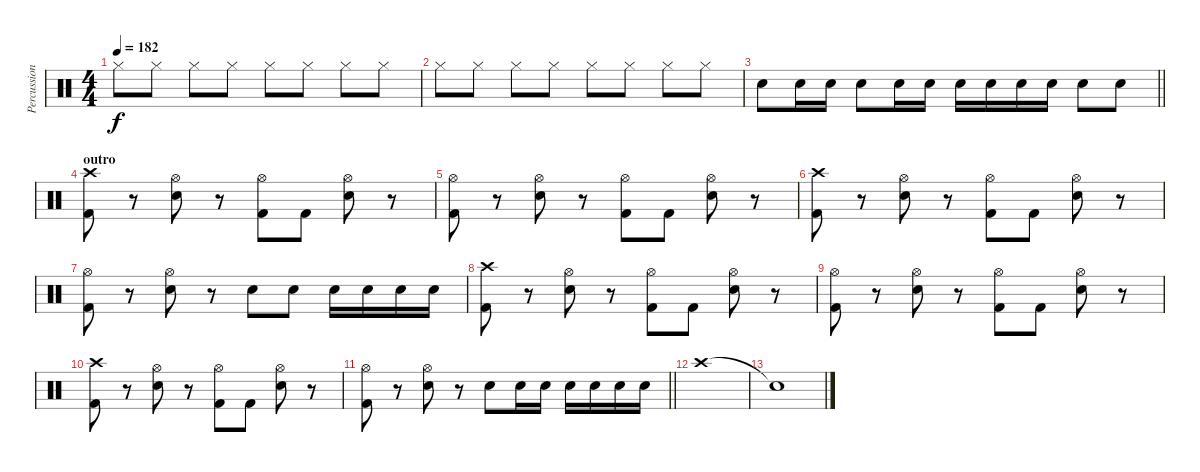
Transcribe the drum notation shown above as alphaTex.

\track ("Percussion" "Percussion") {instrument percussion}
\staff {score}
\articulation defaults
\ts (4 4)
\tempo 182
\clef neutral
\ks c "Hi-Hat (closed)".8{dy f} "Hi-Hat (closed)".8 "Hi-Hat (closed)".8 "Hi-Hat (closed)".8 "Hi-Hat (closed)".8 "Hi-Hat (closed)".8 "Hi-Hat (closed)".8 "Hi-Hat (closed)".8
|
"Hi-Hat (closed)".8 "Hi-Hat (closed)".8 "Hi-Hat (closed)".8 "Hi-Hat (closed)".8 "Hi-Hat (closed)".8 "Hi-Hat (closed)".8 "Hi-Hat (closed)".8 "Hi-Hat (closed)".8 |
\barLineRight lightlight "Snare (hit) 2".8 "Snare (hit) 2".16 "Snare (hit) 2".16 "Snare (hit) 2".8 "Snare (hit) 2".16 "Snare (hit) 2".16 "Snare (hit) 2".16 "Snare (hit) 2".16 "Snare (hit) 2".16 "Snare (hit) 2".16 "Snare (hit) 2".8 "Snare (hit) 2".8
|
\section ("" "outro")
("Crash high (hit)" "Kick (hit) 2").8 r.8 ("Hi-Hat (open)" "Snare (hit) 2").8 r.8 ("Hi-Hat (open)" "Kick (hit) 2").8 "Kick (hit) 2".8 ("Hi-Hat (open)" "Snare (hit) 2").8 r.8 |
("Hi-Hat (open)" "Kick (hit) 2").8 r.8 ("Hi-Hat (open)" "Snare (hit) 2").8 r.8 ("Hi-Hat (open)" "Kick (hit) 2").8 "Kick (hit) 2".8 ("Hi-Hat (open)" "Snare (hit) 2").8 r.8 |
("Crash high (hit)" "Kick (hit) 2").8 r.8 ("Hi-Hat (open)" "Snare (hit) 2").8 r.8 ("Hi-Hat (open)" "Kick (hit) 2").8 "Kick (hit) 2".8 ("Hi-Hat (open)" "Snare (hit) 2").8 r.8 |
("Hi-Hat (open)" "Kick (hit) 2").8 r.8 ("Hi-Hat (open)" "Snare (hit) 2").8 r.8 "Snare (hit) 2".8 "Snare (hit) 2".8 "Snare (hit) 2".16 "Snare (hit) 2".16 "Snare (hit) 2".16 "Snare (hit) 2".16 |
("Crash high (hit)" "Kick (hit) 2").8 r.8 ("Hi-Hat (open)" "Snare (hit) 2").8 r.8 ("Hi-Hat (open)" "Kick (hit) 2").8 "Kick (hit) 2".8 ("Hi-Hat (open)" "Snare (hit) 2").8 r.8 |
("Hi-Hat (open)" "Kick (hit) 2").8 r.8 ("Hi-Hat (open)" "Snare (hit) 2").8 r.8 ("Hi-Hat (open)" "Kick (hit) 2").8 "Kick (hit) 2".8 ("Hi-Hat (open)" "Snare (hit) 2").8 r.8 |
("Crash high (hit)" "Kick (hit) 2").8 r.8 ("Hi-Hat (open)" "Snare (hit) 2").8 r.8 ("Hi-Hat (open)" "Kick (hit) 2").8 "Kick (hit) 2".8 ("Hi-Hat (open)" "Snare (hit) 2").8 r.8 |
\barLineRight lightlight
("Hi-Hat (open)" "Kick (hit) 2").8 r.8 ("Hi-Hat (open)" "Snare (hit) 2").8 r.8 "Snare (hit) 2".8 "Snare (hit) 2".16 "Snare (hit) 2".16 "Snare (hit) 2".16 "Snare (hit) 2".16 "Snare (hit) 2".16 "Snare (hit) 2".16 |
"Crash high (hit)".1 |
"Snare (hit)"{t}.1
